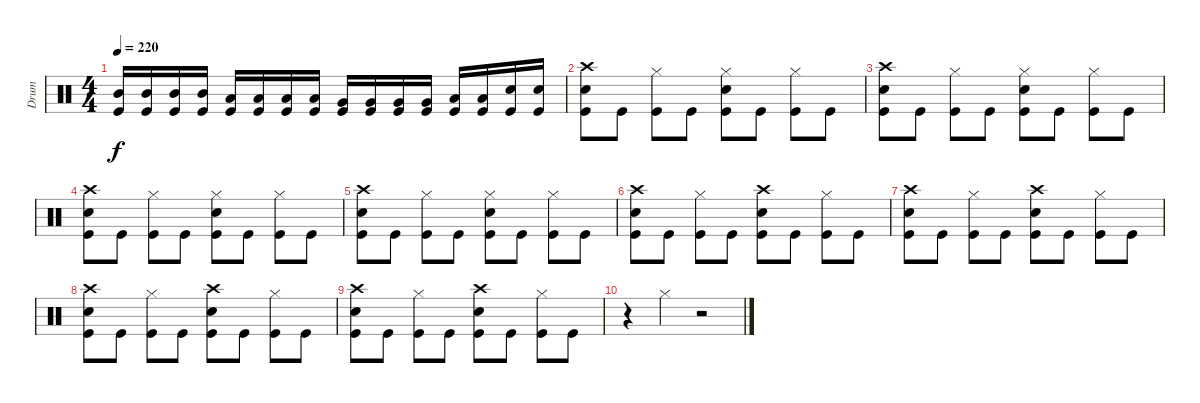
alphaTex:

\track ("Drum" "Drum") {instrument percussion}
\staff {score}
\articulation defaults
\ts (4 4)
\tempo 220
\clef neutral
\ks c
("Mid Tom (hit)" "Kick (hit)").16{dy f} ("Mid Tom (hit)" "Kick (hit)").16 ("Mid Tom (hit)" "Kick (hit)").16 ("Mid Tom (hit)" "Kick (hit)").16 ("Low Tom (hit)" "Kick (hit)").16 ("Low Tom (hit)" "Kick (hit)").16 ("Low Tom (hit)" "Kick (hit)").16 ("Low Tom (hit)" "Kick (hit)").16 ("Very Low Tom (hit)" "Kick (hit)").16 ("Very Low Tom (hit)" "Kick (hit)").16 ("Very Low Tom (hit)" "Kick (hit)").16 ("Very Low Tom (hit)" "Kick (hit)").16 ("Low Floor Tom (hit)" "Kick (hit)").16 ("Low Floor Tom (hit)" "Kick (hit)").16 ("Snare (hit) 2" "Kick (hit)").16 ("Snare (hit) 2" "Kick (hit)").16 |
("Crash high (hit)" "Snare (hit) 2" "Kick (hit)").8 "Kick (hit)".8 ("Hi-Hat (closed)" "Kick (hit)").8 "Kick (hit)".8 ("Hi-Hat (closed)" "Snare (hit) 2" "Kick (hit)").8 "Kick (hit)".8 ("Hi-Hat (closed)" "Kick (hit)").8 "Kick (hit)".8 |
("Crash high (hit)" "Snare (hit) 2" "Kick (hit)").8 "Kick (hit)".8 ("Hi-Hat (closed)" "Kick (hit)").8 "Kick (hit)".8 ("Hi-Hat (closed)" "Snare (hit) 2" "Kick (hit)").8 "Kick (hit)".8 ("Hi-Hat (closed)" "Kick (hit)").8 "Kick (hit)".8 |
("Crash high (hit)" "Snare (hit) 2" "Kick (hit)").8 "Kick (hit)".8 ("Hi-Hat (closed)" "Kick (hit)").8 "Kick (hit)".8 ("Hi-Hat (closed)" "Snare (hit) 2" "Kick (hit)").8 "Kick (hit)".8 ("Hi-Hat (closed)" "Kick (hit)").8 "Kick (hit)".8 |
("Crash high (hit)" "Snare (hit) 2" "Kick (hit)").8 "Kick (hit)".8 ("Hi-Hat (closed)" "Kick (hit)").8 "Kick (hit)".8 ("Hi-Hat (closed)" "Snare (hit) 2" "Kick (hit)").8 "Kick (hit)".8 ("Hi-Hat (closed)" "Kick (hit)").8 "Kick (hit)".8 |
("Crash high (hit)" "Snare (hit) 2" "Kick (hit)").8 "Kick (hit)".8 ("Hi-Hat (closed)" "Kick (hit)").8 "Kick (hit)".8 ("Crash high (hit)" "Snare (hit) 2" "Kick (hit)").8 "Kick (hit)".8 ("Hi-Hat (closed)" "Kick (hit)").8 "Kick (hit)".8 |
("Crash high (hit)" "Snare (hit) 2" "Kick (hit)").8 "Kick (hit)".8 ("Hi-Hat (closed)" "Kick (hit)").8 "Kick (hit)".8 ("Crash high (hit)" "Snare (hit) 2" "Kick (hit)").8 "Kick (hit)".8 ("Hi-Hat (closed)" "Kick (hit)").8 "Kick (hit)".8 |
("Crash high (hit)" "Snare (hit) 2" "Kick (hit)").8 "Kick (hit)".8 ("Hi-Hat (closed)" "Kick (hit)").8 "Kick (hit)".8 ("Crash high (hit)" "Snare (hit) 2" "Kick (hit)").8 "Kick (hit)".8 ("Hi-Hat (closed)" "Kick (hit)").8 "Kick (hit)".8 |
("Crash high (hit)" "Snare (hit) 2" "Kick (hit)").8 "Kick (hit)".8 ("Hi-Hat (closed)" "Kick (hit)").8 "Kick (hit)".8 ("Crash high (hit)" "Snare (hit) 2" "Kick (hit)").8 "Kick (hit)".8 ("Hi-Hat (closed)" "Kick (hit)").8 "Kick (hit)".8 |
r.4 "Hi-Hat (closed)".4 r.2
